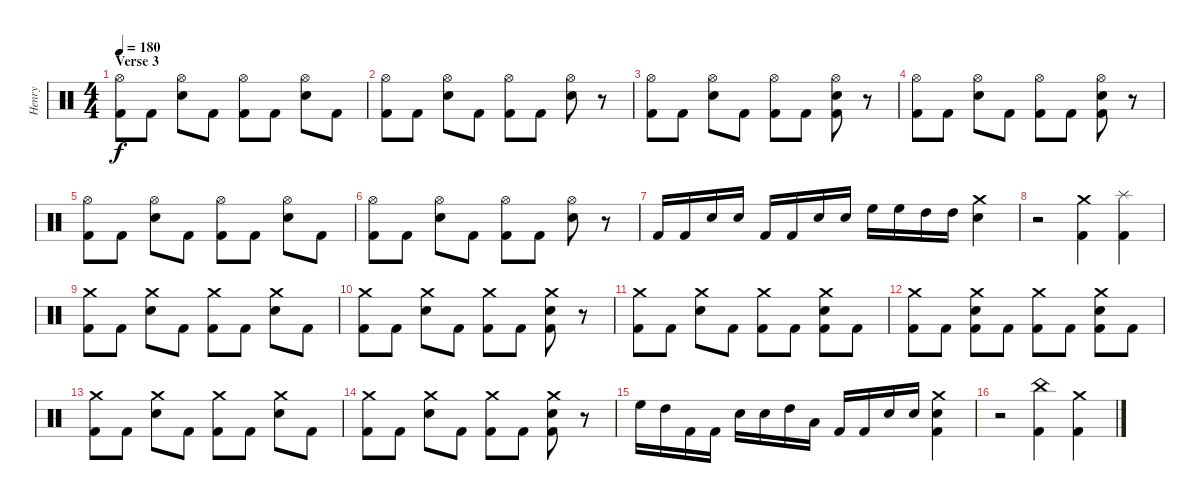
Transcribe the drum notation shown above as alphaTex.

\track ("Henry" "Henry") {instrument percussion}
\staff {score}
\articulation defaults
\ts (4 4)
\section ("" "Verse 3")
\tempo 180
\clef neutral
\ks c
("Hi-Hat (open)" "Kick (hit) 2").8{dy f} "Kick (hit) 2".8 ("Hi-Hat (open)" "Snare (hit) 2").8 "Kick (hit) 2".8 ("Hi-Hat (open)" "Kick (hit) 2").8 "Kick (hit) 2".8 ("Hi-Hat (open)" "Snare (hit) 2").8 "Kick (hit) 2".8 |
("Hi-Hat (open)" "Kick (hit) 2").8 "Kick (hit) 2".8 ("Hi-Hat (open)" "Snare (hit) 2").8 "Kick (hit) 2".8 ("Hi-Hat (open)" "Kick (hit) 2").8 "Kick (hit) 2".8 ("Hi-Hat (open)" "Snare (hit) 2").8 r.8 |
("Hi-Hat (open)" "Kick (hit) 2").8 "Kick (hit) 2".8 ("Hi-Hat (open)" "Snare (hit) 2").8 "Kick (hit) 2".8 ("Hi-Hat (open)" "Kick (hit) 2").8 "Kick (hit) 2".8 ("Hi-Hat (open)" "Snare (hit) 2" "Kick (hit) 2").8 r.8 |
("Hi-Hat (open)" "Kick (hit) 2").8 "Kick (hit) 2".8 ("Hi-Hat (open)" "Snare (hit) 2").8 "Kick (hit) 2".8 ("Hi-Hat (open)" "Kick (hit) 2").8 "Kick (hit) 2".8 ("Hi-Hat (open)" "Snare (hit) 2" "Kick (hit) 2").8 r.8 |
("Hi-Hat (open)" "Kick (hit) 2").8 "Kick (hit) 2".8 ("Hi-Hat (open)" "Snare (hit) 2").8 "Kick (hit) 2".8 ("Hi-Hat (open)" "Kick (hit) 2").8 "Kick (hit) 2".8 ("Hi-Hat (open)" "Snare (hit) 2").8 "Kick (hit) 2".8 |
("Hi-Hat (open)" "Kick (hit) 2").8 "Kick (hit) 2".8 ("Hi-Hat (open)" "Snare (hit) 2").8 "Kick (hit) 2".8 ("Hi-Hat (open)" "Kick (hit) 2").8 "Kick (hit) 2".8 ("Hi-Hat (open)" "Snare (hit) 2").8 r.8 |
"Kick (hit) 2".16 "Kick (hit) 2".16 "Snare (hit) 2".16 "Snare (hit) 2".16 "Kick (hit) 2".16 "Kick (hit) 2".16 "Snare (hit) 2".16 "Snare (hit) 2".16 "High Floor Tom (hit)".16 "High Floor Tom (hit)".16 "High Tom (hit)".16 "High Tom (hit)".16 ("Crash medium (hit)" "Snare (hit) 2").4 |
r.2 ("Crash medium (hit)" "Kick (hit) 2").4 ("Splash (hit)" "Kick (hit) 2").4 |
("Crash medium (hit)" "Kick (hit) 2").8 "Kick (hit) 2".8 ("Crash medium (hit)" "Snare (hit) 2").8 "Kick (hit) 2".8 ("Crash medium (hit)" "Kick (hit) 2").8 "Kick (hit) 2".8 ("Crash medium (hit)" "Snare (hit) 2").8 "Kick (hit) 2".8 |
("Crash medium (hit)" "Kick (hit) 2").8 "Kick (hit) 2".8 ("Crash medium (hit)" "Snare (hit) 2").8 "Kick (hit) 2".8 ("Crash medium (hit)" "Kick (hit) 2").8 "Kick (hit) 2".8 ("Crash medium (hit)" "Snare (hit) 2" "Kick (hit) 2").8 r.8 |
("Crash medium (hit)" "Kick (hit) 2").8 "Kick (hit) 2".8 ("Crash medium (hit)" "Snare (hit) 2").8 "Kick (hit) 2".8 ("Crash medium (hit)" "Kick (hit) 2").8 "Kick (hit) 2".8 ("Crash medium (hit)" "Snare (hit) 2" "Kick (hit) 2").8 "Kick (hit) 2".8 |
("Crash medium (hit)" "Kick (hit) 2").8 "Kick (hit) 2".8 ("Crash medium (hit)" "Snare (hit) 2" "Kick (hit) 2").8 "Kick (hit) 2".8 ("Crash medium (hit)" "Kick (hit) 2").8 "Kick (hit) 2".8 ("Crash medium (hit)" "Snare (hit) 2" "Kick (hit) 2").8 "Kick (hit) 2".8 |
("Crash medium (hit)" "Kick (hit) 2").8 "Kick (hit) 2".8 ("Crash medium (hit)" "Snare (hit) 2").8 "Kick (hit) 2".8 ("Crash medium (hit)" "Kick (hit) 2").8 "Kick (hit) 2".8 ("Crash medium (hit)" "Snare (hit) 2").8 "Kick (hit) 2".8 |
("Crash medium (hit)" "Kick (hit) 2").8 "Kick (hit) 2".8 ("Crash medium (hit)" "Snare (hit) 2").8 "Kick (hit) 2".8 ("Crash medium (hit)" "Kick (hit) 2").8 "Kick (hit) 2".8 ("Crash medium (hit)" "Snare (hit) 2" "Kick (hit) 2").8 r.8 |
"High Floor Tom (hit)".16 "High Tom (hit)".16 "Kick (hit) 2".16 "Kick (hit) 2".16 "Snare (hit) 2".16 "Snare (hit) 2".16 "High Tom (hit)".16 "Low Tom (hit)".16 "Kick (hit) 2".16 "Kick (hit) 2".16 "Snare (hit) 2".16 "Snare (hit) 2".16 ("Crash medium (hit)" "Snare (hit) 2" "Kick (hit) 2").4 |
r.2 ("China (hit)" "Kick (hit) 2").4 ("Crash medium (hit)" "Kick (hit) 2").4
